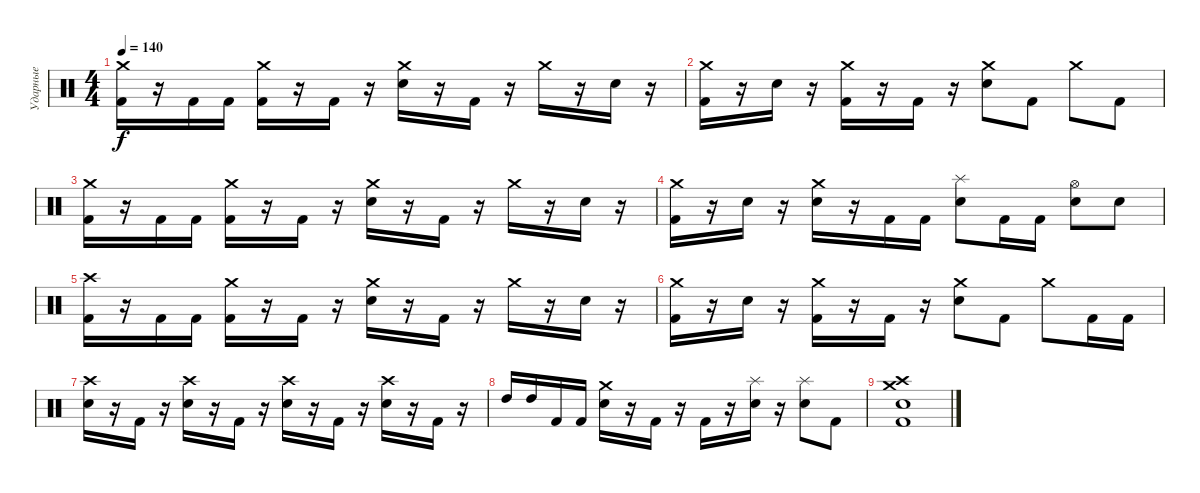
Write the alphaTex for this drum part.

\track ("Ударные" "Ударные") {instrument percussion}
\staff {score}
\articulation defaults
\ts (4 4)
\tempo 140
\clef neutral
\ks c
("Crash medium (hit)" "Kick (hit) 2").16{dy f} r.16 "Kick (hit) 2".16 "Kick (hit) 2".16 ("Crash medium (hit)" "Kick (hit) 2").16 r.16 "Kick (hit) 2".16 r.16 ("Crash medium (hit)" "Electric Snare (hit)").16 r.16 "Kick (hit) 2".16 r.16 "Crash medium (hit)".16 r.16 "Electric Snare (hit)".16 r.16 |
("Crash medium (hit)" "Kick (hit) 2").16 r.16 "Electric Snare (hit)".16 r.16 ("Crash medium (hit)" "Kick (hit) 2").16 r.16 "Kick (hit) 2".16 r.16 ("Crash medium (hit)" "Electric Snare (hit)").8 "Kick (hit) 2".8 "Crash medium (hit)".8 "Kick (hit) 2".8 |
("Crash medium (hit)" "Kick (hit) 2").16 r.16 "Kick (hit) 2".16 "Kick (hit) 2".16 ("Crash medium (hit)" "Kick (hit) 2").16 r.16 "Kick (hit) 2".16 r.16 ("Crash medium (hit)" "Electric Snare (hit)").16 r.16 "Kick (hit) 2".16 r.16 "Crash medium (hit)".16 r.16 "Electric Snare (hit)".16 r.16 |
("Crash medium (hit)" "Kick (hit) 2").16 r.16 "Electric Snare (hit)".16 r.16 ("Crash medium (hit)" "Electric Snare (hit)").16 r.16 "Kick (hit) 2".16 "Kick (hit) 2".16 ("Splash (hit)" "Electric Snare (hit)").8 "Kick (hit) 2".16 "Kick (hit) 2".16 ("Hi-Hat (open)" "Electric Snare (hit)").8 "Electric Snare (hit)".8 |
("Crash high (hit)" "Kick (hit) 2").16 r.16 "Kick (hit) 2".16 "Kick (hit) 2".16 ("Crash medium (hit)" "Kick (hit) 2").16 r.16 "Kick (hit) 2".16 r.16 ("Crash medium (hit)" "Electric Snare (hit)").16 r.16 "Kick (hit) 2".16 r.16 "Crash medium (hit)".16 r.16 "Electric Snare (hit)".16 r.16 |
("Crash medium (hit)" "Kick (hit) 2").16 r.16 "Electric Snare (hit)".16 r.16 ("Crash medium (hit)" "Kick (hit) 2").16 r.16 "Kick (hit) 2".16 r.16 ("Crash medium (hit)" "Electric Snare (hit)").8 "Kick (hit) 2".8 "Crash medium (hit)".8 "Kick (hit) 2".16 "Kick (hit) 2".16 |
("Crash high (hit)" "Electric Snare (hit)").16 r.16 "Kick (hit) 2".16 r.16 ("Crash high (hit)" "Electric Snare (hit)").16 r.16 "Kick (hit) 2".16 r.16 ("Crash high (hit)" "Electric Snare (hit)").16 r.16 "Kick (hit) 2".16 r.16 ("Crash high (hit)" "Electric Snare (hit)").16 r.16 "Kick (hit) 2".16 r.16 |
"High Tom (hit)".16 "High Tom (hit)".16 "Kick (hit) 2".16 "Kick (hit) 2".16 ("Crash medium (hit)" "Electric Snare (hit)").16 r.16 "Kick (hit) 2".16 r.16 "Kick (hit) 2".16 r.16 ("Splash (hit)" "Electric Snare (hit)").16 r.16 ("Splash (hit)" "Electric Snare (hit)").8 "Kick (hit) 2".8 |
("Crash medium (hit)" "Crash high (hit)" "Snare (hit)" "Kick (hit) 2").1
